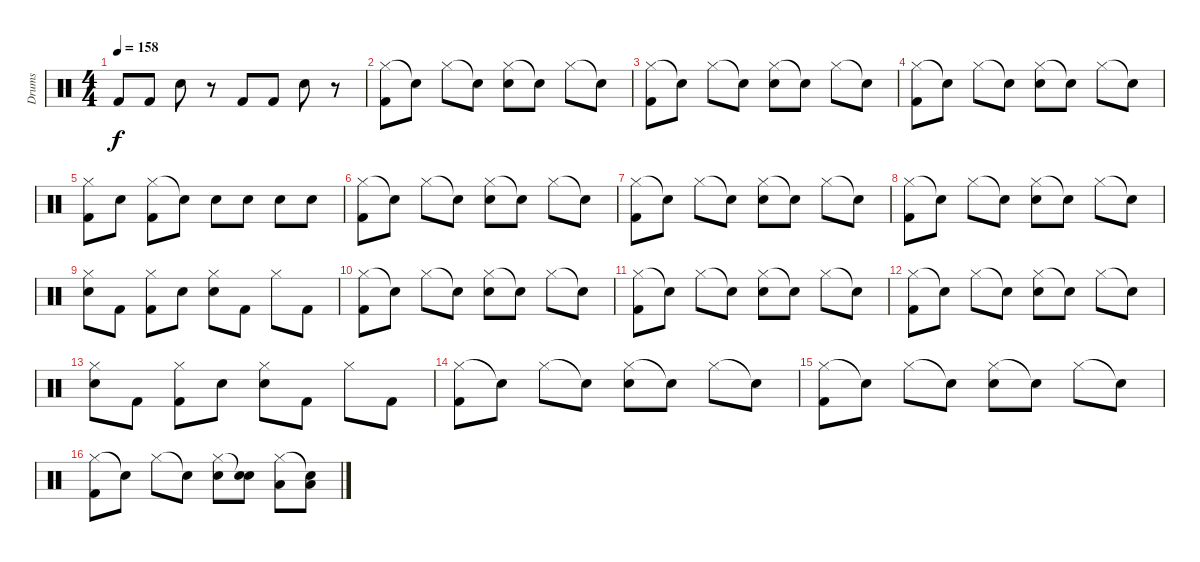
\track ("Drums" "Drums") {instrument percussion}
\staff {score}
\articulation defaults
\ts (4 4)
\tempo 158
\clef neutral
\ks c "Kick (hit) 2".8{dy f} "Kick (hit) 2".8 "Snare (hit) 2".8
r.8 "Kick (hit) 2".8 "Kick (hit) 2".8 "Snare (hit) 2".8 r.8 |
("Hi-Hat (closed)" "Kick (hit) 2").8 "Snare (hit)"{t}.8 "Hi-Hat (closed)".8 "Snare (hit)"{t}.8 ("Hi-Hat (closed)" "Snare (hit) 2").8 "Snare (hit)"{t}.8 "Hi-Hat (closed)".8 "Snare (hit)"{t}.8 |
("Hi-Hat (closed)" "Kick (hit) 2").8 "Snare (hit)"{t}.8 "Hi-Hat (closed)".8 "Snare (hit)"{t}.8 ("Hi-Hat (closed)" "Snare (hit) 2").8 "Snare (hit)"{t}.8 "Hi-Hat (closed)".8 "Snare (hit)"{t}.8 |
("Hi-Hat (closed)" "Kick (hit) 2").8 "Snare (hit)"{t}.8 "Hi-Hat (closed)".8 "Snare (hit)"{t}.8 ("Hi-Hat (closed)" "Snare (hit) 2").8 "Snare (hit)"{t}.8 "Hi-Hat (closed)".8 "Snare (hit)"{t}.8 |
("Hi-Hat (closed)" "Kick (hit) 2").8 "Snare (hit) 2".8 ("Hi-Hat (closed)" "Kick (hit) 2").8 "Snare (hit)"{t}.8 "Snare (hit) 2".8 "Snare (hit) 2".8 "Snare (hit) 2".8 "Snare (hit) 2".8 |
("Hi-Hat (closed)" "Kick (hit) 2").8 "Snare (hit)"{t}.8 "Hi-Hat (closed)".8 "Snare (hit)"{t}.8 ("Hi-Hat (closed)" "Snare (hit) 2").8 "Snare (hit)"{t}.8 "Hi-Hat (closed)".8 "Snare (hit)"{t}.8 |
("Hi-Hat (closed)" "Kick (hit) 2").8 "Snare (hit)"{t}.8 "Hi-Hat (closed)".8 "Snare (hit)"{t}.8 ("Hi-Hat (closed)" "Snare (hit) 2").8 "Snare (hit)"{t}.8 "Hi-Hat (closed)".8 "Snare (hit)"{t}.8 |
("Hi-Hat (closed)" "Kick (hit) 2").8 "Snare (hit)"{t}.8 "Hi-Hat (closed)".8 "Snare (hit)"{t}.8 ("Hi-Hat (closed)" "Snare (hit) 2").8 "Snare (hit)"{t}.8 "Hi-Hat (closed)".8 "Snare (hit)"{t}.8 |
("Hi-Hat (closed)" "Snare (hit) 2").8 "Kick (hit) 2".8 ("Hi-Hat (closed)" "Kick (hit) 2").8 "Snare (hit) 2".8 ("Hi-Hat (closed)" "Snare (hit) 2").8 "Kick (hit) 2".8 "Hi-Hat (closed)".8 "Kick (hit) 2".8 |
("Hi-Hat (closed)" "Kick (hit) 2").8 "Snare (hit)"{t}.8 "Hi-Hat (closed)".8 "Snare (hit)"{t}.8 ("Hi-Hat (closed)" "Snare (hit) 2").8 "Snare (hit)"{t}.8 "Hi-Hat (closed)".8 "Snare (hit)"{t}.8 |
("Hi-Hat (closed)" "Kick (hit) 2").8 "Snare (hit)"{t}.8 "Hi-Hat (closed)".8 "Snare (hit)"{t}.8 ("Hi-Hat (closed)" "Snare (hit) 2").8 "Snare (hit)"{t}.8 "Hi-Hat (closed)".8 "Snare (hit)"{t}.8 |
("Hi-Hat (closed)" "Kick (hit) 2").8 "Snare (hit)"{t}.8 "Hi-Hat (closed)".8 "Snare (hit)"{t}.8 ("Hi-Hat (closed)" "Snare (hit) 2").8 "Snare (hit)"{t}.8 "Hi-Hat (closed)".8 "Snare (hit)"{t}.8 |
("Hi-Hat (closed)" "Snare (hit) 2").8 "Kick (hit) 2".8 ("Hi-Hat (closed)" "Kick (hit) 2").8 "Snare (hit) 2".8 ("Hi-Hat (closed)" "Snare (hit) 2").8 "Kick (hit) 2".8 "Hi-Hat (closed)".8 "Kick (hit) 2".8 |
("Hi-Hat (closed)" "Kick (hit) 2").8 "Snare (hit)"{t}.8 "Hi-Hat (closed)".8 "Snare (hit)"{t}.8 ("Hi-Hat (closed)" "Snare (hit) 2").8 "Snare (hit)"{t}.8 "Hi-Hat (closed)".8 "Snare (hit)"{t}.8 |
("Hi-Hat (closed)" "Kick (hit) 2").8 "Snare (hit)"{t}.8 "Hi-Hat (closed)".8 "Snare (hit)"{t}.8 ("Hi-Hat (closed)" "Snare (hit) 2").8 "Snare (hit)"{t}.8 "Hi-Hat (closed)".8 "Snare (hit)"{t}.8 |
("Hi-Hat (closed)" "Kick (hit) 2").8 "Snare (hit)"{t}.8 "Hi-Hat (closed)".8 "Snare (hit)"{t}.8 ("Hi-Hat (closed)" "Snare (hit) 2").8 ("Snare (hit)"{t} "Snare (hit) 2").8 ("Hi-Hat (closed)" "Low Tom (hit)").8 ("Snare (hit)"{t} "Low Tom (hit)").8
